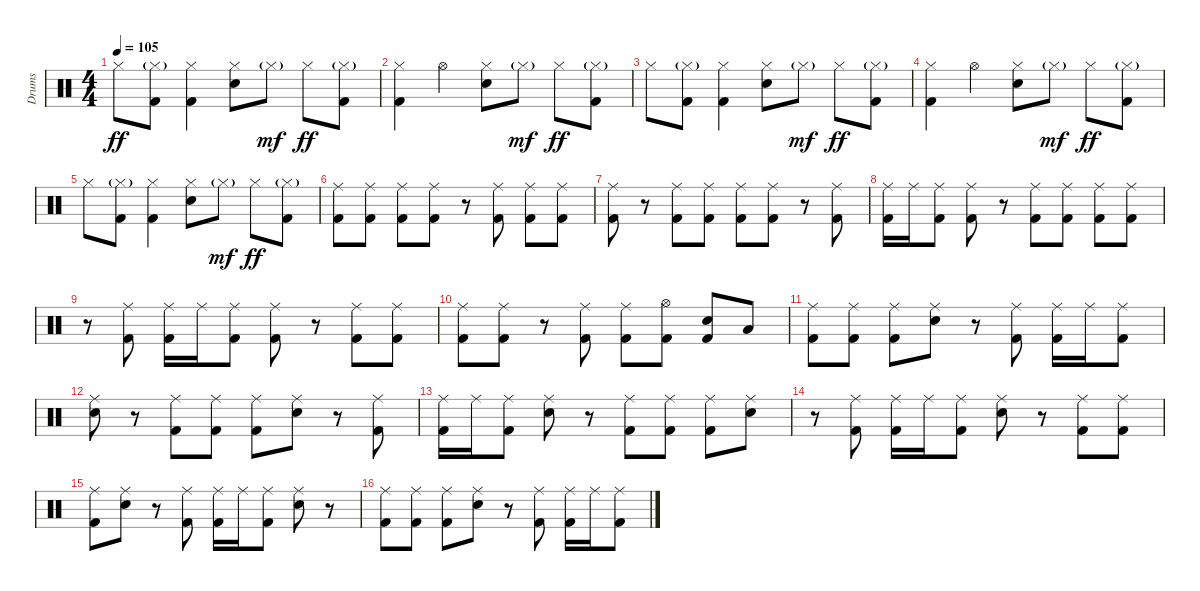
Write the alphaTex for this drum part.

\track ("Drums" "Drums") {instrument percussion}
\staff {score}
\articulation defaults
\ts (4 4)
\tempo 105
\clef neutral
\ks c "Hi-Hat (closed)".8{dy ff}
("Hi-Hat (closed)"{g} "Kick (hit) 2").8 ("Hi-Hat (closed)" "Kick (hit) 2").4 ("Hi-Hat (closed)" "Electric Snare (hit)").8 "Hi-Hat (closed)"{g}.8{dy mf} "Hi-Hat (closed)".8{dy ff} ("Hi-Hat (closed)"{g} "Kick (hit) 2").8 |
("Hi-Hat (closed)" "Kick (hit) 2").4 "Hi-Hat (open)".4 ("Hi-Hat (closed)" "Electric Snare (hit)").8 "Hi-Hat (closed)"{g}.8{dy mf} "Hi-Hat (closed)".8{dy ff} ("Hi-Hat (closed)"{g} "Kick (hit) 2").8 |
"Hi-Hat (closed)".8 ("Hi-Hat (closed)"{g} "Kick (hit) 2").8 ("Hi-Hat (closed)" "Kick (hit) 2").4 ("Hi-Hat (closed)" "Electric Snare (hit)").8 "Hi-Hat (closed)"{g}.8{dy mf} "Hi-Hat (closed)".8{dy ff} ("Hi-Hat (closed)"{g} "Kick (hit) 2").8 |
("Hi-Hat (closed)" "Kick (hit) 2").4 "Hi-Hat (open)".4 ("Hi-Hat (closed)" "Electric Snare (hit)").8 "Hi-Hat (closed)"{g}.8{dy mf} "Hi-Hat (closed)".8{dy ff} ("Hi-Hat (closed)"{g} "Kick (hit) 2").8 |
"Hi-Hat (closed)".8 ("Hi-Hat (closed)"{g} "Kick (hit) 2").8 ("Hi-Hat (closed)" "Kick (hit) 2").4 ("Hi-Hat (closed)" "Electric Snare (hit)").8 "Hi-Hat (closed)"{g}.8{dy mf} "Hi-Hat (closed)".8{dy ff} ("Hi-Hat (closed)"{g} "Kick (hit) 2").8 |
("Ride (middle)" "Kick (hit) 2").8 ("Ride (middle)" "Kick (hit) 2").8 ("Ride (middle)" "Kick (hit) 2").8 ("Ride (middle)" "Kick (hit) 2").8 r.8 ("Ride (middle)" "Kick (hit) 2").8 ("Ride (middle)" "Kick (hit) 2").8 ("Ride (middle)" "Kick (hit) 2").8 |
("Ride (middle)" "Kick (hit) 2").8 r.8 ("Ride (middle)" "Kick (hit) 2").8 ("Ride (middle)" "Kick (hit) 2").8 ("Ride (middle)" "Kick (hit) 2").8 ("Ride (middle)" "Kick (hit) 2").8 r.8 ("Ride (middle)" "Kick (hit) 2").8 |
("Ride (middle)" "Kick (hit) 2").16 "Ride (middle)".16 ("Ride (middle)" "Kick (hit) 2").8 ("Ride (middle)" "Kick (hit) 2").8 r.8 ("Ride (middle)" "Kick (hit) 2").8 ("Ride (middle)" "Kick (hit) 2").8 ("Ride (middle)" "Kick (hit) 2").8 ("Ride (middle)" "Kick (hit) 2").8 |
r.8 ("Ride (middle)" "Kick (hit) 2").8 ("Ride (middle)" "Kick (hit) 2").16 "Ride (middle)".16 ("Ride (middle)" "Kick (hit) 2").8 ("Ride (middle)" "Kick (hit) 2").8 r.8 ("Ride (middle)" "Kick (hit) 2").8 ("Ride (middle)" "Kick (hit) 2").8 |
("Ride (middle)" "Kick (hit) 2").8 ("Ride (middle)" "Kick (hit) 2").8 r.8 ("Ride (middle)" "Kick (hit) 2").8 ("Ride (middle)" "Kick (hit) 2").8 ("Hi-Hat (open)" "Kick (hit) 2").8 ("Electric Snare (hit)" "Kick (hit) 2").8 "Low Floor Tom (hit)".8 |
("Ride (middle)" "Kick (hit) 2").8 ("Ride (middle)" "Kick (hit) 2").8 ("Ride (middle)" "Kick (hit) 2").8 ("Ride (middle)" "Electric Snare (hit)").8 r.8 ("Ride (middle)" "Kick (hit) 2").8 ("Ride (middle)" "Kick (hit) 2").16 "Ride (middle)".16 ("Ride (middle)" "Kick (hit) 2").8 |
("Ride (middle)" "Electric Snare (hit)").8 r.8 ("Ride (middle)" "Kick (hit) 2").8 ("Ride (middle)" "Kick (hit) 2").8 ("Ride (middle)" "Kick (hit) 2").8 ("Ride (middle)" "Electric Snare (hit)").8 r.8 ("Ride (middle)" "Kick (hit) 2").8 |
("Ride (middle)" "Kick (hit) 2").16 "Ride (middle)".16 ("Ride (middle)" "Kick (hit) 2").8 ("Ride (middle)" "Electric Snare (hit)").8 r.8 ("Ride (middle)" "Kick (hit) 2").8 ("Ride (middle)" "Kick (hit) 2").8 ("Ride (middle)" "Kick (hit) 2").8 ("Ride (middle)" "Electric Snare (hit)").8 |
r.8 ("Ride (middle)" "Kick (hit) 2").8 ("Ride (middle)" "Kick (hit) 2").16 "Ride (middle)".16 ("Ride (middle)" "Kick (hit) 2").8 ("Ride (middle)" "Electric Snare (hit)").8 r.8 ("Ride (middle)" "Kick (hit) 2").8 ("Ride (middle)" "Kick (hit) 2").8 |
("Ride (middle)" "Kick (hit) 2").8 ("Ride (middle)" "Electric Snare (hit)").8 r.8 ("Ride (middle)" "Kick (hit) 2").8 ("Ride (middle)" "Kick (hit) 2").16 "Ride (middle)".16 ("Ride (middle)" "Kick (hit) 2").8 ("Ride (middle)" "Electric Snare (hit)").8 r.8 |
("Ride (middle)" "Kick (hit) 2").8 ("Ride (middle)" "Kick (hit) 2").8 ("Ride (middle)" "Kick (hit) 2").8 ("Ride (middle)" "Electric Snare (hit)").8 r.8 ("Ride (middle)" "Kick (hit) 2").8 ("Ride (middle)" "Kick (hit) 2").16 "Ride (middle)".16 ("Ride (middle)" "Kick (hit) 2").8
